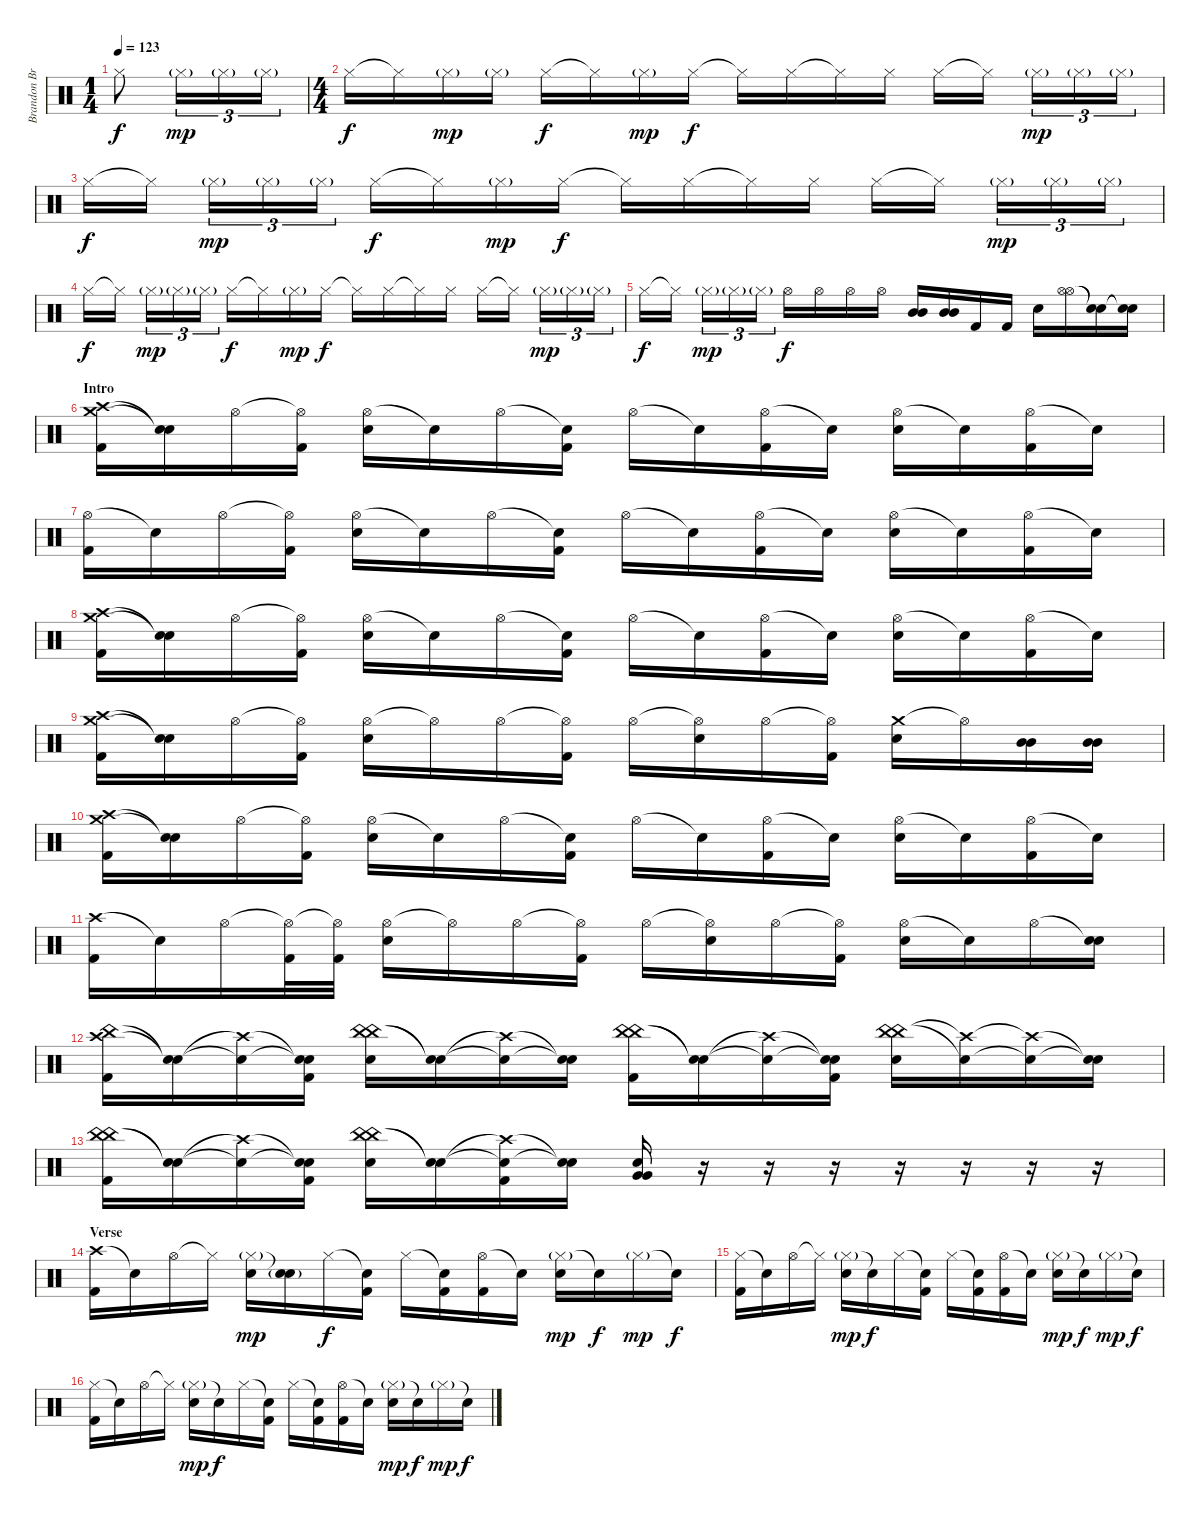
\track ("Brandon Brown (Drums)" "Brandon Br") {instrument percussion}
\staff {score}
\articulation defaults
\ts (1 4)
\tempo 123
\clef neutral
\ks c "Hi-Hat (closed)".8{dy f} "Hi-Hat (closed)"{g}.16{tu (3 2) dy mp} "Hi-Hat (closed)"{g}.16{tu (3 2)} "Hi-Hat (closed)"{g}.16{tu (3 2)}
|
\ts (4 4)
"Hi-Hat (closed)".16{dy f} "Hi-Hat (closed)"{t}.16 "Hi-Hat (closed)"{g}.16{dy mp} "Hi-Hat (closed)"{g}.16 "Hi-Hat (closed)".16{dy f} "Hi-Hat (closed)"{t}.16 "Hi-Hat (closed)"{g}.16{dy mp} "Hi-Hat (closed)".16{dy f} "Hi-Hat (closed)"{t}.16 "Hi-Hat (closed)".16 "Hi-Hat (closed)"{t}.16 "Hi-Hat (closed)".16 "Hi-Hat (closed)".16 "Hi-Hat (closed)"{t}.16 "Hi-Hat (closed)"{g}.16{tu (3 2) dy mp} "Hi-Hat (closed)"{g}.16{tu (3 2)} "Hi-Hat (closed)"{g}.16{tu (3 2)} |
"Hi-Hat (closed)".16{dy f} "Hi-Hat (closed)"{t}.16 "Hi-Hat (closed)"{g}.16{tu (3 2) dy mp} "Hi-Hat (closed)"{g}.16{tu (3 2)} "Hi-Hat (closed)"{g}.16{tu (3 2)} "Hi-Hat (closed)".16{dy f} "Hi-Hat (closed)"{t}.16 "Hi-Hat (closed)"{g}.16{dy mp} "Hi-Hat (closed)".16{dy f} "Hi-Hat (closed)"{t}.16 "Hi-Hat (closed)".16 "Hi-Hat (closed)"{t}.16 "Hi-Hat (closed)".16 "Hi-Hat (closed)".16 "Hi-Hat (closed)"{t}.16 "Hi-Hat (closed)"{g}.16{tu (3 2) dy mp} "Hi-Hat (closed)"{g}.16{tu (3 2)} "Hi-Hat (closed)"{g}.16{tu (3 2)} |
"Hi-Hat (closed)".16{dy f} "Hi-Hat (closed)"{t}.16 "Hi-Hat (closed)"{g}.16{tu (3 2) dy mp} "Hi-Hat (closed)"{g}.16{tu (3 2)} "Hi-Hat (closed)"{g}.16{tu (3 2)} "Hi-Hat (closed)".16{dy f} "Hi-Hat (closed)"{t}.16 "Hi-Hat (closed)"{g}.16{dy mp} "Hi-Hat (closed)".16{dy f} "Hi-Hat (closed)"{t}.16 "Hi-Hat (closed)".16 "Hi-Hat (closed)"{t}.16 "Hi-Hat (closed)".16 "Hi-Hat (closed)".16 "Hi-Hat (closed)"{t}.16 "Hi-Hat (closed)"{g}.16{tu (3 2) dy mp} "Hi-Hat (closed)"{g}.16{tu (3 2)} "Hi-Hat (closed)"{g}.16{tu (3 2)} |
"Hi-Hat (closed)".16{dy f} "Hi-Hat (closed)"{t}.16 "Hi-Hat (closed)"{g}.16{tu (3 2) dy mp} "Hi-Hat (closed)"{g}.16{tu (3 2)} "Hi-Hat (closed)"{g}.16{tu (3 2)} "Hi-Hat (open)".16{dy f} "Hi-Hat (open)".16 "Hi-Hat (open)".16 "Hi-Hat (open)".16 ("Mid Tom (hit)" "Mid Tom (hit)").16 ("Mid Tom (hit)" "Mid Tom (hit)").16 "Kick (hit) 2".16 "Kick (hit) 2".16 "Electric Snare (hit)".16 ("Hi-Hat (open)" "Hi-Hat (open)").16 ("Snare (hit)"{t} "Snare (hit)"{t}).16 ("Snare (hit)"{t} "Snare (hit)"{t}).16 |
\section ("" "Intro")
("Crash high (hit)" "Crash medium (hit)" "Kick (hit) 2").16 ("Snare (hit)"{t} "Snare (hit)"{t}).16 "Hi-Hat (open)".16 ("Hi-Hat (open)"{t} "Kick (hit) 2").16 ("Hi-Hat (open)" "Electric Snare (hit)").16 "Snare (hit)"{t}.16 "Hi-Hat (open)".16 ("Snare (hit)"{t} "Kick (hit) 2").16 "Hi-Hat (open)".16 "Snare (hit)"{t}.16 ("Hi-Hat (open)" "Kick (hit) 2").16 "Snare (hit)"{t}.16 ("Hi-Hat (open)" "Electric Snare (hit)").16 "Snare (hit)"{t}.16 ("Hi-Hat (open)" "Kick (hit) 2").16 "Snare (hit)"{t}.16 |
("Hi-Hat (open)" "Kick (hit) 2").16 "Snare (hit)"{t}.16 "Hi-Hat (open)".16 ("Hi-Hat (open)"{t} "Kick (hit) 2").16 ("Hi-Hat (open)" "Electric Snare (hit)").16 "Snare (hit)"{t}.16 "Hi-Hat (open)".16 ("Snare (hit)"{t} "Kick (hit) 2").16 "Hi-Hat (open)".16 "Snare (hit)"{t}.16 ("Hi-Hat (open)" "Kick (hit) 2").16 "Snare (hit)"{t}.16 ("Hi-Hat (open)" "Electric Snare (hit)").16 "Snare (hit)"{t}.16 ("Hi-Hat (open)" "Kick (hit) 2").16 "Snare (hit)"{t}.16 |
("Crash high (hit)" "Crash medium (hit)" "Kick (hit) 2").16 ("Snare (hit)"{t} "Snare (hit)"{t}).16 "Hi-Hat (open)".16 ("Hi-Hat (open)"{t} "Kick (hit) 2").16 ("Hi-Hat (open)" "Electric Snare (hit)").16 "Snare (hit)"{t}.16 "Hi-Hat (open)".16 ("Snare (hit)"{t} "Kick (hit) 2").16 "Hi-Hat (open)".16 "Snare (hit)"{t}.16 ("Hi-Hat (open)" "Kick (hit) 2").16 "Snare (hit)"{t}.16 ("Hi-Hat (open)" "Electric Snare (hit)").16 "Snare (hit)"{t}.16 ("Hi-Hat (open)" "Kick (hit) 2").16 "Snare (hit)"{t}.16 |
("Crash high (hit)" "Crash medium (hit)" "Kick (hit) 2").16 ("Snare (hit)"{t} "Snare (hit)"{t}).16 "Hi-Hat (open)".16 ("Hi-Hat (open)"{t} "Kick (hit) 2").16 ("Hi-Hat (open)" "Electric Snare (hit)").16 "Hi-Hat (open)"{t}.16 "Hi-Hat (open)".16 ("Hi-Hat (open)"{t} "Kick (hit) 2").16 "Hi-Hat (open)".16 ("Hi-Hat (open)"{t} "Electric Snare (hit)").16 "Hi-Hat (open)".16 ("Hi-Hat (open)"{t} "Kick (hit) 2").16 ("Crash medium (hit)" "Electric Snare (hit)").16 "Hi-Hat (open)"{t}.16 ("Mid Tom (hit)" "Mid Tom (hit)").16 ("Mid Tom (hit)" "Mid Tom (hit)").16 |
("Crash high (hit)" "Crash medium (hit)" "Kick (hit) 2").16 ("Snare (hit)"{t} "Snare (hit)"{t}).16 "Hi-Hat (open)".16 ("Hi-Hat (open)"{t} "Kick (hit) 2").16 ("Hi-Hat (open)" "Electric Snare (hit)").16 "Snare (hit)"{t}.16 "Hi-Hat (open)".16 ("Snare (hit)"{t} "Kick (hit) 2").16 "Hi-Hat (open)".16 "Snare (hit)"{t}.16 ("Hi-Hat (open)" "Kick (hit) 2").16 "Snare (hit)"{t}.16 ("Hi-Hat (open)" "Electric Snare (hit)").16 "Snare (hit)"{t}.16 ("Hi-Hat (open)" "Kick (hit) 2").16 "Snare (hit)"{t}.16 |
("Crash high (hit)" "Kick (hit) 2").16 "Snare (hit)"{t}.16 "Hi-Hat (open)".16 ("Hi-Hat (open)"{t} "Kick (hit) 2").32 ("Hi-Hat (open)"{t} "Kick (hit) 2").32 ("Hi-Hat (open)" "Electric Snare (hit)").16 "Hi-Hat (open)"{t}.16 "Hi-Hat (open)".16 ("Hi-Hat (open)"{t} "Kick (hit) 2").16 "Hi-Hat (open)".16 ("Hi-Hat (open)"{t} "Electric Snare (hit)").16 "Hi-Hat (open)".16 ("Hi-Hat (open)"{t} "Kick (hit) 2").16 ("Hi-Hat (open)" "Electric Snare (hit)").16 "Snare (hit)"{t}.16 "Hi-Hat (open)".16 ("Snare (hit)"{t} "Electric Snare (hit)").16 |
("Crash high (hit)" "China (hit)" "Kick (hit) 2").16 ("Snare (hit)"{t} "Snare (hit)"{t}).16 ("Crash high (hit)"{t} "Snare (hit)"{t}).16 ("Snare (hit)"{t} "Snare (hit)"{t} "Kick (hit) 2").16 ("China (hit)" "China (hit)" "Electric Snare (hit)").16 ("Snare (hit)"{t} "Snare (hit)"{t}).16 ("Crash high (hit)"{t} "Snare (hit)"{t}).16 ("Snare (hit)"{t} "Snare (hit)"{t}).16 ("China (hit)" "China (hit)" "Kick (hit) 2").16 ("Snare (hit)"{t} "Snare (hit)"{t}).16 ("Crash high (hit)"{t} "Snare (hit)"{t}).16 ("Snare (hit)"{t} "Snare (hit)"{t} "Kick (hit) 2").16 ("China (hit)" "China (hit)" "Electric Snare (hit)").16 ("Crash high (hit)"{t} "Snare (hit)"{t}).16 ("Crash high (hit)"{t} "Snare (hit)"{t}).16 ("Snare (hit)"{t} "Snare (hit)"{t}).16 |
("China (hit)" "China (hit)" "Kick (hit) 2").16 ("Snare (hit)"{t} "Snare (hit)"{t}).16 ("Crash high (hit)"{t} "Snare (hit)"{t}).16 ("Snare (hit)"{t} "Snare (hit)"{t} "Kick (hit) 2").16 ("China (hit)" "China (hit)" "Electric Snare (hit)").16 ("Snare (hit)"{t} "Snare (hit)"{t}).16 ("Crash high (hit)"{t} "Snare (hit)"{t} "Kick (hit) 2").16 ("Snare (hit)"{t} "Snare (hit)"{t}).16 ("Electric Snare (hit)" "Very Low Tom (hit)" "Very Low Tom (hit)").16 r.16 r.16 r.16 r.16 r.16 r.16 r.16 |
\section ("" "Verse")
("Crash high (hit)" "Kick (hit) 2").16 "Snare (hit)"{t}.16 "Hi-Hat (open)".16 "Hi-Hat (closed)"{t}.16 ("Hi-Hat (closed)"{g} "Electric Snare (hit)").16{dy mp} ("Snare (hit)"{t} "Electric Snare (hit)"{g}).16 "Hi-Hat (closed)".16{dy f} ("Snare (hit)"{t} "Kick (hit) 2").16 "Hi-Hat (closed)".16 ("Snare (hit)"{t} "Kick (hit) 2").16 ("Hi-Hat (open)" "Kick (hit) 2").16 "Snare (hit)"{t}.16 ("Hi-Hat (closed)"{g} "Electric Snare (hit)").16{dy mp} "Snare (hit)"{t}.16{dy f} "Hi-Hat (closed)"{g}.16{dy mp} "Snare (hit)"{t}.16{dy f} |
("Hi-Hat (closed)" "Kick (hit) 2").16 "Snare (hit)"{t}.16 "Hi-Hat (open)".16 "Hi-Hat (closed)"{t}.16 ("Hi-Hat (closed)"{g} "Electric Snare (hit)").16{dy mp} "Snare (hit)"{t}.16{dy f} "Hi-Hat (closed)".16 ("Snare (hit)"{t} "Kick (hit) 2").16 "Hi-Hat (closed)".16 ("Snare (hit)"{t} "Kick (hit) 2").16 ("Hi-Hat (open)" "Kick (hit) 2").16 "Snare (hit)"{t}.16 ("Hi-Hat (closed)"{g} "Electric Snare (hit)").16{dy mp} "Snare (hit)"{t}.16{dy f} "Hi-Hat (closed)"{g}.16{dy mp} "Snare (hit)"{t}.16{dy f} |
("Hi-Hat (closed)" "Kick (hit) 2").16 "Snare (hit)"{t}.16 "Hi-Hat (open)".16 "Hi-Hat (closed)"{t}.16 ("Hi-Hat (closed)"{g} "Electric Snare (hit)").16{dy mp} "Snare (hit)"{t}.16{dy f} "Hi-Hat (closed)".16 ("Snare (hit)"{t} "Kick (hit) 2").16 "Hi-Hat (closed)".16 ("Snare (hit)"{t} "Kick (hit) 2").16 ("Hi-Hat (open)" "Kick (hit) 2").16 "Snare (hit)"{t}.16 ("Hi-Hat (closed)"{g} "Electric Snare (hit)").16{dy mp} "Snare (hit)"{t}.16{dy f} "Hi-Hat (closed)"{g}.16{dy mp} "Snare (hit)"{t}.16{dy f}
